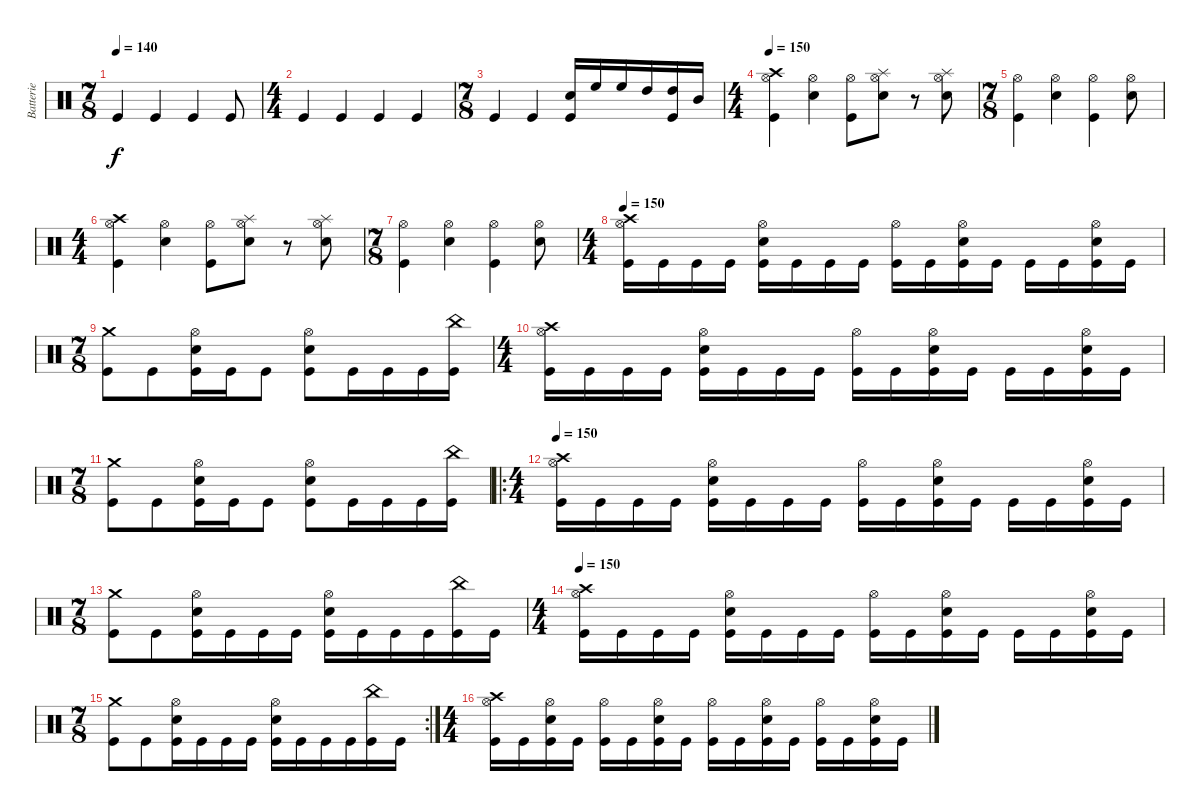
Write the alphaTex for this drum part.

\track ("Batterie" "Batterie") {instrument percussion}
\staff {score}
\articulation defaults
\ts (7 8)
\tempo 140
\clef neutral
\ks c "Kick (hit)".4{dy f} "Kick (hit)".4 "Kick (hit)".4 "Kick (hit)".8
|
\ts (4 4)
"Kick (hit)".4 "Kick (hit)".4 "Kick (hit)".4 "Kick (hit)".4 |
\ts (7 8)
"Kick (hit)".4 "Kick (hit)".4 ("Snare (hit) 2" "Kick (hit)").16 "High Floor Tom (hit)".16 "High Floor Tom (hit)".16 "High Tom (hit)".16 ("High Tom (hit)" "Kick (hit)").16 "Mid Tom (hit)".16 |
\ts (4 4)
\tempo 150
("Crash high (hit)" "Hi-Hat (open)" "Kick (hit)").4 ("Hi-Hat (open)" "Snare (hit) 2").4 ("Hi-Hat (open)" "Kick (hit)").8 ("Splash (hit)" "Hi-Hat (open)" "Snare (hit) 2").8 r.8 ("Splash (hit)" "Hi-Hat (open)" "Snare (hit) 2").8 |
\ts (7 8)
("Hi-Hat (open)" "Kick (hit)").4 ("Hi-Hat (open)" "Snare (hit) 2").4 ("Hi-Hat (open)" "Kick (hit)").4 ("Hi-Hat (open)" "Snare (hit) 2").8 |
\ts (4 4)
("Crash high (hit)" "Hi-Hat (open)" "Kick (hit)").4 ("Hi-Hat (open)" "Snare (hit) 2").4 ("Hi-Hat (open)" "Kick (hit)").8 ("Splash (hit)" "Hi-Hat (open)" "Snare (hit) 2").8 r.8 ("Splash (hit)" "Hi-Hat (open)" "Snare (hit) 2").8 |
\ts (7 8)
("Hi-Hat (open)" "Kick (hit)").4 ("Hi-Hat (open)" "Snare (hit) 2").4 ("Hi-Hat (open)" "Kick (hit)").4 ("Hi-Hat (open)" "Snare (hit) 2").8 |
\ts (4 4)
\tempo 150
("Crash high (hit)" "Hi-Hat (open)" "Kick (hit)").16 "Kick (hit)".16 "Kick (hit)".16 "Kick (hit)".16 ("Hi-Hat (open)" "Snare (hit) 2" "Kick (hit)").16 "Kick (hit)".16 "Kick (hit)".16 "Kick (hit)".16 ("Hi-Hat (open)" "Kick (hit)").16 "Kick (hit)".16 ("Hi-Hat (open)" "Snare (hit) 2" "Kick (hit)").16 "Kick (hit)".16 "Kick (hit)".16 "Kick (hit)".16 ("Hi-Hat (open)" "Snare (hit) 2" "Kick (hit)").16 "Kick (hit)".16 |
\ts (7 8)
("Crash medium (hit)" "Kick (hit)").8 "Kick (hit)".8 ("Hi-Hat (open)" "Snare (hit) 2" "Kick (hit)").16 "Kick (hit)".16 "Kick (hit)".8 ("Hi-Hat (open)" "Snare (hit) 2" "Kick (hit)").8 "Kick (hit)".16 "Kick (hit)".16 "Kick (hit)".16 ("China (hit)" "Kick (hit)").16 |
\ts (4 4)
("Crash high (hit)" "Hi-Hat (open)" "Kick (hit)").16 "Kick (hit)".16 "Kick (hit)".16 "Kick (hit)".16 ("Hi-Hat (open)" "Snare (hit) 2" "Kick (hit)").16 "Kick (hit)".16 "Kick (hit)".16 "Kick (hit)".16 ("Hi-Hat (open)" "Kick (hit)").16 "Kick (hit)".16 ("Hi-Hat (open)" "Snare (hit) 2" "Kick (hit)").16 "Kick (hit)".16 "Kick (hit)".16 "Kick (hit)".16 ("Hi-Hat (open)" "Snare (hit) 2" "Kick (hit)").16 "Kick (hit)".16 |
\ts (7 8)
("Crash medium (hit)" "Kick (hit)").8 "Kick (hit)".8 ("Hi-Hat (open)" "Snare (hit) 2" "Kick (hit)").16 "Kick (hit)".16 "Kick (hit)".8 ("Hi-Hat (open)" "Snare (hit) 2" "Kick (hit)").8 "Kick (hit)".16 "Kick (hit)".16 "Kick (hit)".16 ("China (hit)" "Kick (hit)").16 |
\ro
\ts (4 4)
\tempo 150
("Crash high (hit)" "Hi-Hat (open)" "Kick (hit)").16 "Kick (hit)".16 "Kick (hit)".16 "Kick (hit)".16 ("Hi-Hat (open)" "Snare (hit) 2" "Kick (hit)").16 "Kick (hit)".16 "Kick (hit)".16 "Kick (hit)".16 ("Hi-Hat (open)" "Kick (hit)").16 "Kick (hit)".16 ("Hi-Hat (open)" "Snare (hit) 2" "Kick (hit)").16 "Kick (hit)".16 "Kick (hit)".16 "Kick (hit)".16 ("Hi-Hat (open)" "Snare (hit) 2" "Kick (hit)").16 "Kick (hit)".16 |
\ts (7 8)
("Crash medium (hit)" "Kick (hit)").8 "Kick (hit)".8 ("Hi-Hat (open)" "Snare (hit) 2" "Kick (hit)").16 "Kick (hit)".16 "Kick (hit)".16 "Kick (hit)".16 ("Hi-Hat (open)" "Snare (hit) 2" "Kick (hit)").16 "Kick (hit)".16 "Kick (hit)".16 "Kick (hit)".16 ("China (hit)" "Kick (hit)").16 "Kick (hit)".16 |
\ts (4 4)
\tempo 150
("Crash high (hit)" "Hi-Hat (open)" "Kick (hit)").16 "Kick (hit)".16 "Kick (hit)".16 "Kick (hit)".16 ("Hi-Hat (open)" "Snare (hit) 2" "Kick (hit)").16 "Kick (hit)".16 "Kick (hit)".16 "Kick (hit)".16 ("Hi-Hat (open)" "Kick (hit)").16 "Kick (hit)".16 ("Hi-Hat (open)" "Snare (hit) 2" "Kick (hit)").16 "Kick (hit)".16 "Kick (hit)".16 "Kick (hit)".16 ("Hi-Hat (open)" "Snare (hit) 2" "Kick (hit)").16 "Kick (hit)".16 |
\rc 2
\ts (7 8)
("Crash medium (hit)" "Kick (hit)").8 "Kick (hit)".8 ("Hi-Hat (open)" "Snare (hit) 2" "Kick (hit)").16 "Kick (hit)".16 "Kick (hit)".16 "Kick (hit)".16 ("Hi-Hat (open)" "Snare (hit) 2" "Kick (hit)").16 "Kick (hit)".16 "Kick (hit)".16 "Kick (hit)".16 ("China (hit)" "Kick (hit)").16 "Kick (hit)".16 |
\ts (4 4)
("Crash high (hit)" "Hi-Hat (open)" "Kick (hit)").16 "Kick (hit)".16 ("Hi-Hat (open)" "Snare (hit) 2" "Kick (hit)").16 "Kick (hit)".16 ("Hi-Hat (open)" "Kick (hit)").16 "Kick (hit)".16 ("Hi-Hat (open)" "Snare (hit) 2" "Kick (hit)").16 "Kick (hit)".16 ("Hi-Hat (open)" "Kick (hit)").16 "Kick (hit)".16 ("Hi-Hat (open)" "Snare (hit) 2" "Kick (hit)").16 "Kick (hit)".16 ("Hi-Hat (open)" "Kick (hit)").16 "Kick (hit)".16 ("Hi-Hat (open)" "Snare (hit) 2" "Kick (hit)").16 "Kick (hit)".16
